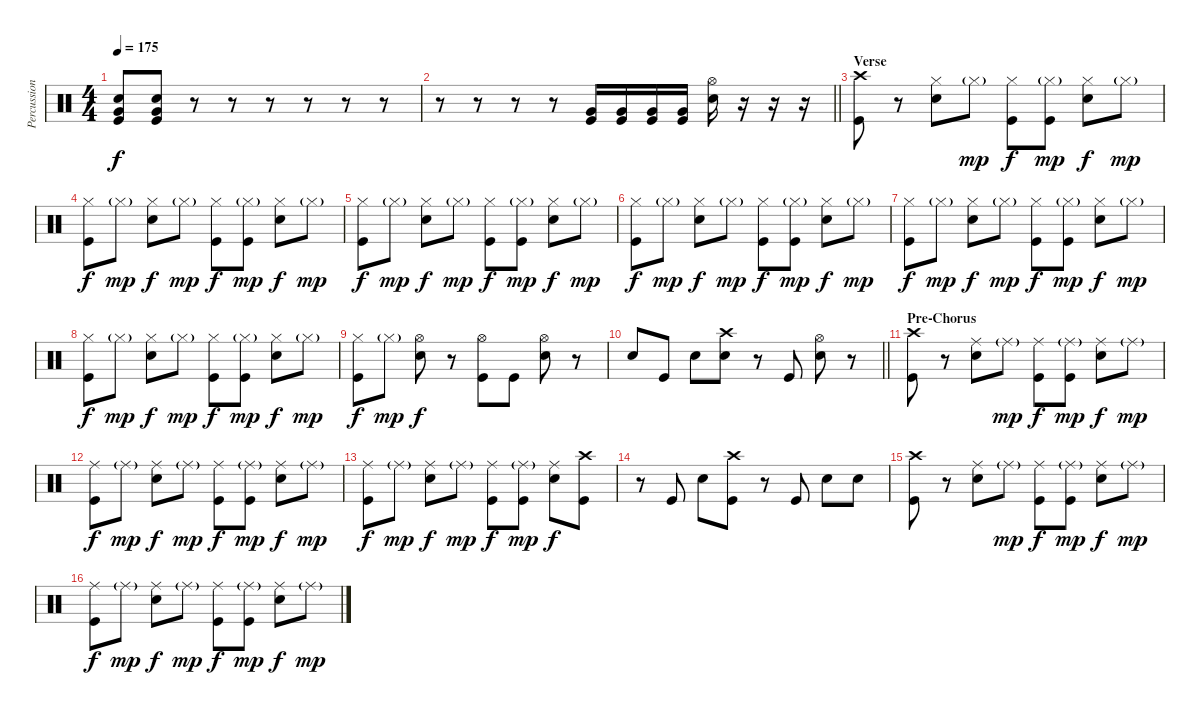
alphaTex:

\track ("Percussion" "Percussion") {instrument percussion}
\staff {score}
\articulation defaults
\ts (4 4)
\tempo 175
\clef neutral
\ks c
("Snare (hit) 2" "Very Low Tom (hit)" "Kick (hit)").8{dy f} ("Snare (hit) 2" "Very Low Tom (hit)" "Kick (hit)").8 r.8 r.8 r.8 r.8 r.8 r.8 |
\barLineRight lightlight
r.8 r.8 r.8 r.8 ("Very Low Tom (hit)" "Kick (hit)").16 ("Very Low Tom (hit)" "Kick (hit)").16 ("Very Low Tom (hit)" "Kick (hit)").16 ("Very Low Tom (hit)" "Kick (hit)").16 ("Hi-Hat (open)" "Snare (hit) 2").16 r.16 r.16 r.16 |
\section ("" "Verse")
("Crash high (hit)" "Kick (hit)").8 r.8 ("Hi-Hat (closed)" "Snare (hit) 2").8 "Hi-Hat (closed)"{g}.8{dy mp} ("Hi-Hat (closed)" "Kick (hit)").8{dy f} ("Hi-Hat (closed)"{g} "Kick (hit)").8{dy mp} ("Hi-Hat (closed)" "Snare (hit) 2").8{dy f} "Hi-Hat (closed)"{g}.8{dy mp} |
("Hi-Hat (closed)" "Kick (hit)").8{dy f} "Hi-Hat (closed)"{g}.8{dy mp} ("Hi-Hat (closed)" "Snare (hit) 2").8{dy f} "Hi-Hat (closed)"{g}.8{dy mp} ("Hi-Hat (closed)" "Kick (hit)").8{dy f} ("Hi-Hat (closed)"{g} "Kick (hit)").8{dy mp} ("Hi-Hat (closed)" "Snare (hit) 2").8{dy f} "Hi-Hat (closed)"{g}.8{dy mp} |
("Hi-Hat (closed)" "Kick (hit)").8{dy f} "Hi-Hat (closed)"{g}.8{dy mp} ("Hi-Hat (closed)" "Snare (hit) 2").8{dy f} "Hi-Hat (closed)"{g}.8{dy mp} ("Hi-Hat (closed)" "Kick (hit)").8{dy f} ("Hi-Hat (closed)"{g} "Kick (hit)").8{dy mp} ("Hi-Hat (closed)" "Snare (hit) 2").8{dy f} "Hi-Hat (closed)"{g}.8{dy mp} |
("Hi-Hat (closed)" "Kick (hit)").8{dy f} "Hi-Hat (closed)"{g}.8{dy mp} ("Hi-Hat (closed)" "Snare (hit) 2").8{dy f} "Hi-Hat (closed)"{g}.8{dy mp} ("Hi-Hat (closed)" "Kick (hit)").8{dy f} ("Hi-Hat (closed)"{g} "Kick (hit)").8{dy mp} ("Hi-Hat (closed)" "Snare (hit) 2").8{dy f} "Hi-Hat (closed)"{g}.8{dy mp} |
("Hi-Hat (closed)" "Kick (hit)").8{dy f} "Hi-Hat (closed)"{g}.8{dy mp} ("Hi-Hat (closed)" "Snare (hit) 2").8{dy f} "Hi-Hat (closed)"{g}.8{dy mp} ("Hi-Hat (closed)" "Kick (hit)").8{dy f} ("Hi-Hat (closed)"{g} "Kick (hit)").8{dy mp} ("Hi-Hat (closed)" "Snare (hit) 2").8{dy f} "Hi-Hat (closed)"{g}.8{dy mp} |
("Hi-Hat (closed)" "Kick (hit)").8{dy f} "Hi-Hat (closed)"{g}.8{dy mp} ("Hi-Hat (closed)" "Snare (hit) 2").8{dy f} "Hi-Hat (closed)"{g}.8{dy mp} ("Hi-Hat (closed)" "Kick (hit)").8{dy f} ("Hi-Hat (closed)"{g} "Kick (hit)").8{dy mp} ("Hi-Hat (closed)" "Snare (hit) 2").8{dy f} "Hi-Hat (closed)"{g}.8{dy mp} |
("Hi-Hat (closed)" "Kick (hit)").8{dy f} "Hi-Hat (closed)"{g}.8{dy mp} ("Hi-Hat (open)" "Snare (hit) 2").8{dy f} r.8 ("Hi-Hat (open)" "Kick (hit)").8 "Kick (hit)".8 ("Hi-Hat (open)" "Snare (hit) 2").8 r.8 |
\barLineRight lightlight "Snare (hit) 2".8 "Kick (hit)".8 "Snare (hit) 2".8
("Crash high (hit)" "Snare (hit) 2").8 r.8 "Kick (hit)".8 ("Hi-Hat (open)" "Snare (hit) 2").8 r.8 |
\section ("" "Pre-Chorus")
("Crash high (hit)" "Kick (hit)").8 r.8 ("Ride (middle)" "Snare (hit) 2").8 "Ride (middle)"{g}.8{dy mp} ("Ride (middle)" "Kick (hit)").8{dy f} ("Ride (middle)"{g} "Kick (hit)").8{dy mp} ("Ride (middle)" "Snare (hit) 2").8{dy f} "Ride (middle)"{g}.8{dy mp} |
("Ride (middle)" "Kick (hit)").8{dy f} "Ride (middle)"{g}.8{dy mp} ("Ride (middle)" "Snare (hit) 2").8{dy f} "Ride (middle)"{g}.8{dy mp} ("Ride (middle)" "Kick (hit)").8{dy f} ("Ride (middle)"{g} "Kick (hit)").8{dy mp} ("Ride (middle)" "Snare (hit) 2").8{dy f} "Ride (middle)"{g}.8{dy mp} |
("Ride (middle)" "Kick (hit)").8{dy f} "Ride (middle)"{g}.8{dy mp} ("Ride (middle)" "Snare (hit) 2").8{dy f} "Ride (middle)"{g}.8{dy mp} ("Ride (middle)" "Kick (hit)").8{dy f} ("Ride (middle)"{g} "Kick (hit)").8{dy mp} ("Ride (middle)" "Snare (hit) 2").8{dy f} ("Crash high (hit)" "Kick (hit)").8 |
r.8 "Kick (hit)".8 "Snare (hit) 2".8 ("Crash high (hit)" "Kick (hit)").8 r.8 "Kick (hit)".8 "Snare (hit) 2".8 "Snare (hit) 2".8 |
("Crash high (hit)" "Kick (hit)").8 r.8 ("Ride (middle)" "Snare (hit) 2").8 "Ride (middle)"{g}.8{dy mp} ("Ride (middle)" "Kick (hit)").8{dy f} ("Ride (middle)"{g} "Kick (hit)").8{dy mp} ("Ride (middle)" "Snare (hit) 2").8{dy f} "Ride (middle)"{g}.8{dy mp} |
("Ride (middle)" "Kick (hit)").8{dy f} "Ride (middle)"{g}.8{dy mp} ("Ride (middle)" "Snare (hit) 2").8{dy f} "Ride (middle)"{g}.8{dy mp} ("Ride (middle)" "Kick (hit)").8{dy f} ("Ride (middle)"{g} "Kick (hit)").8{dy mp} ("Ride (middle)" "Snare (hit) 2").8{dy f} "Ride (middle)"{g}.8{dy mp}
